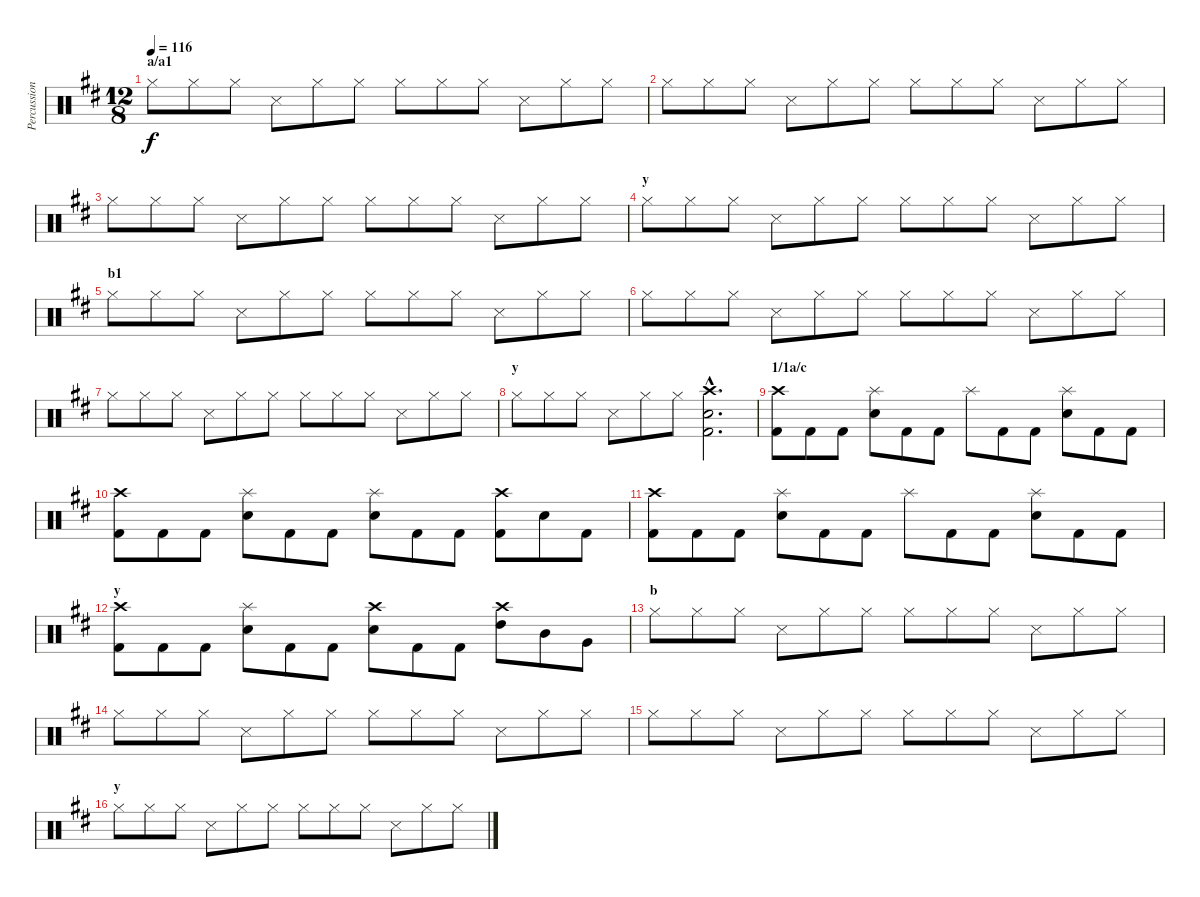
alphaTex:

\track ("Percussion" "Percussion") {instrument percussion}
\staff {score}
\articulation defaults
\ts (12 8)
\section ("" "a/a1")
\tempo 116
\clef neutral
\ks bminor "Hi-Hat (closed)".8{dy f} "Hi-Hat (closed)".8 "Hi-Hat (closed)".8 "Snare (side stick) 3".8 "Hi-Hat (closed)".8 "Hi-Hat (closed)".8 "Hi-Hat (closed)".8 "Hi-Hat (closed)".8 "Hi-Hat (closed)".8 "Snare (side stick) 3".8 "Hi-Hat (closed)".8 "Hi-Hat (closed)".8
|
"Hi-Hat (closed)".8 "Hi-Hat (closed)".8 "Hi-Hat (closed)".8 "Snare (side stick) 3".8 "Hi-Hat (closed)".8 "Hi-Hat (closed)".8 "Hi-Hat (closed)".8 "Hi-Hat (closed)".8 "Hi-Hat (closed)".8 "Snare (side stick) 3".8 "Hi-Hat (closed)".8 "Hi-Hat (closed)".8 |
"Hi-Hat (closed)".8 "Hi-Hat (closed)".8 "Hi-Hat (closed)".8 "Snare (side stick) 3".8 "Hi-Hat (closed)".8 "Hi-Hat (closed)".8 "Hi-Hat (closed)".8 "Hi-Hat (closed)".8 "Hi-Hat (closed)".8 "Snare (side stick) 3".8 "Hi-Hat (closed)".8 "Hi-Hat (closed)".8 |
\section ("" "y")
"Hi-Hat (closed)".8 "Hi-Hat (closed)".8 "Hi-Hat (closed)".8 "Snare (side stick) 3".8 "Hi-Hat (closed)".8 "Hi-Hat (closed)".8 "Hi-Hat (closed)".8 "Hi-Hat (closed)".8 "Hi-Hat (closed)".8 "Snare (side stick) 3".8 "Hi-Hat (closed)".8 "Hi-Hat (closed)".8 |
\section ("" "b1")
"Hi-Hat (closed)".8 "Hi-Hat (closed)".8 "Hi-Hat (closed)".8 "Snare (side stick) 3".8 "Hi-Hat (closed)".8 "Hi-Hat (closed)".8 "Hi-Hat (closed)".8 "Hi-Hat (closed)".8 "Hi-Hat (closed)".8 "Snare (side stick) 3".8 "Hi-Hat (closed)".8 "Hi-Hat (closed)".8 |
"Hi-Hat (closed)".8 "Hi-Hat (closed)".8 "Hi-Hat (closed)".8 "Snare (side stick) 3".8 "Hi-Hat (closed)".8 "Hi-Hat (closed)".8 "Hi-Hat (closed)".8 "Hi-Hat (closed)".8 "Hi-Hat (closed)".8 "Snare (side stick) 3".8 "Hi-Hat (closed)".8 "Hi-Hat (closed)".8 |
"Hi-Hat (closed)".8 "Hi-Hat (closed)".8 "Hi-Hat (closed)".8 "Snare (side stick) 3".8 "Hi-Hat (closed)".8 "Hi-Hat (closed)".8 "Hi-Hat (closed)".8 "Hi-Hat (closed)".8 "Hi-Hat (closed)".8 "Snare (side stick) 3".8 "Hi-Hat (closed)".8 "Hi-Hat (closed)".8 |
\section ("" "y")
"Hi-Hat (closed)".8 "Hi-Hat (closed)".8 "Hi-Hat (closed)".8 "Snare (side stick) 3".8 "Hi-Hat (closed)".8 "Hi-Hat (closed)".8 ("Crash high (hit)"{hac} "Snare (hit) 2"{hac} "Kick (hit) 2"{hac}).2{d} |
\section ("" "1/1a/c")
("Crash high (hit)" "Kick (hit) 2").8 "Kick (hit) 2".8 "Kick (hit) 2".8 ("Splash (hit)" "Snare (hit) 2").8 "Kick (hit) 2".8 "Kick (hit) 2".8 "Splash (hit)".8 "Kick (hit) 2".8 "Kick (hit) 2".8 ("Splash (hit)" "Snare (hit) 2").8 "Kick (hit) 2".8 "Kick (hit) 2".8 |
("Crash high (hit)" "Kick (hit) 2").8 "Kick (hit) 2".8 "Kick (hit) 2".8 ("Splash (hit)" "Snare (hit) 2").8 "Kick (hit) 2".8 "Kick (hit) 2".8 ("Splash (hit)" "Snare (hit) 2").8 "Kick (hit) 2".8 "Kick (hit) 2".8 ("Crash high (hit)" "Kick (hit) 2").8 "Snare (hit) 2".8 "Kick (hit) 2".8 |
("Crash high (hit)" "Kick (hit) 2").8 "Kick (hit) 2".8 "Kick (hit) 2".8 ("Splash (hit)" "Snare (hit) 2").8 "Kick (hit) 2".8 "Kick (hit) 2".8 "Splash (hit)".8 "Kick (hit) 2".8 "Kick (hit) 2".8 ("Splash (hit)" "Snare (hit) 2").8 "Kick (hit) 2".8 "Kick (hit) 2".8 |
\section ("" "y")
("Crash high (hit)" "Kick (hit) 2").8 "Kick (hit) 2".8 "Kick (hit) 2".8 ("Splash (hit)" "Snare (hit) 2").8 "Kick (hit) 2".8 "Kick (hit) 2".8 ("Crash high (hit)" "Snare (hit) 2").8 "Kick (hit) 2".8 "Kick (hit) 2".8 ("Crash high (hit)" "High Tom (hit)").8 "Mid Tom (hit)".8 "Very Low Tom (hit)".8 |
\section ("" "b")
"Hi-Hat (closed)".8 "Hi-Hat (closed)".8 "Hi-Hat (closed)".8 "Snare (side stick) 3".8 "Hi-Hat (closed)".8 "Hi-Hat (closed)".8 "Hi-Hat (closed)".8 "Hi-Hat (closed)".8 "Hi-Hat (closed)".8 "Snare (side stick) 3".8 "Hi-Hat (closed)".8 "Hi-Hat (closed)".8 |
"Hi-Hat (closed)".8 "Hi-Hat (closed)".8 "Hi-Hat (closed)".8 "Snare (side stick) 3".8 "Hi-Hat (closed)".8 "Hi-Hat (closed)".8 "Hi-Hat (closed)".8 "Hi-Hat (closed)".8 "Hi-Hat (closed)".8 "Snare (side stick) 3".8 "Hi-Hat (closed)".8 "Hi-Hat (closed)".8 |
"Hi-Hat (closed)".8 "Hi-Hat (closed)".8 "Hi-Hat (closed)".8 "Snare (side stick) 3".8 "Hi-Hat (closed)".8 "Hi-Hat (closed)".8 "Hi-Hat (closed)".8 "Hi-Hat (closed)".8 "Hi-Hat (closed)".8 "Snare (side stick) 3".8 "Hi-Hat (closed)".8 "Hi-Hat (closed)".8 |
\section ("" "y")
"Hi-Hat (closed)".8 "Hi-Hat (closed)".8 "Hi-Hat (closed)".8 "Snare (side stick) 3".8 "Hi-Hat (closed)".8 "Hi-Hat (closed)".8 "Hi-Hat (closed)".8 "Hi-Hat (closed)".8 "Hi-Hat (closed)".8 "Snare (side stick) 3".8 "Hi-Hat (closed)".8 "Hi-Hat (closed)".8
